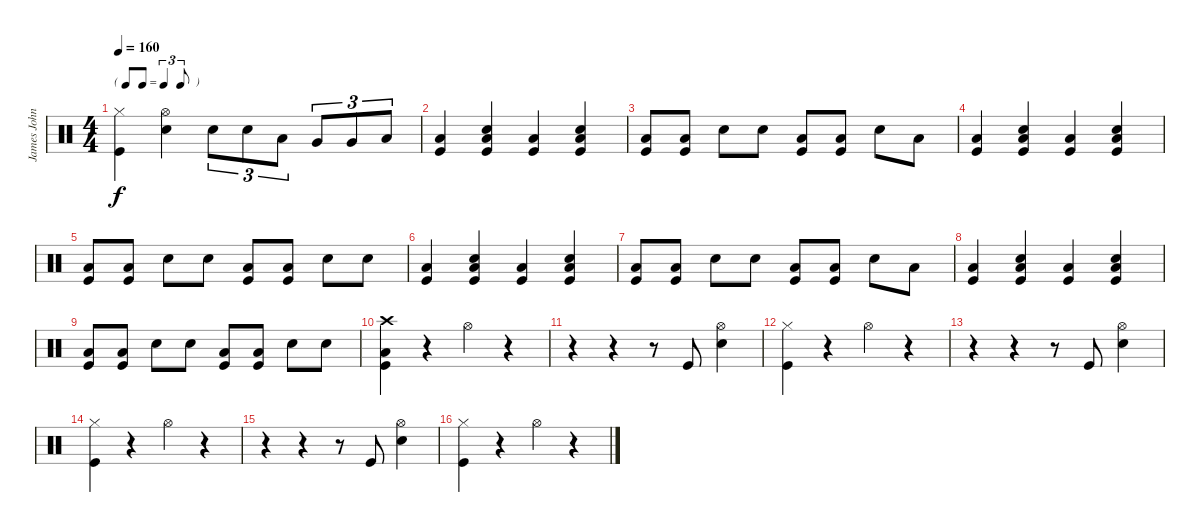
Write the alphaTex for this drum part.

\track ("James Johnston" "James John") {instrument percussion}
\staff {score}
\articulation defaults
\ts (4 4)
\tf triplet8th
\tempo 160
\clef neutral
\ks c
("Hi-Hat (closed)" "Kick (hit)").4{dy f} ("Hi-Hat (open)" "Electric Snare (hit)").4 "Electric Snare (hit)".8{tu (3 2)} "Electric Snare (hit)".8{tu (3 2)} "Low Tom (hit)".8{tu (3 2)} "Very Low Tom (hit)".8{tu (3 2)} "Very Low Tom (hit)".8{tu (3 2)} "Low Floor Tom (hit)".8{tu (3 2)} |
("Low Floor Tom (hit)" "Kick (hit)").4 ("Electric Snare (hit)" "Low Floor Tom (hit)" "Kick (hit)").4 ("Low Floor Tom (hit)" "Kick (hit)").4 ("Electric Snare (hit)" "Low Floor Tom (hit)" "Kick (hit)").4 |
("Low Floor Tom (hit)" "Kick (hit)").8 ("Low Floor Tom (hit)" "Kick (hit)").8 "Electric Snare (hit)".8 "Electric Snare (hit)".8 ("Low Floor Tom (hit)" "Kick (hit)").8 ("Low Floor Tom (hit)" "Kick (hit)").8 "Electric Snare (hit)".8 "Low Floor Tom (hit)".8 |
("Low Floor Tom (hit)" "Kick (hit)").4 ("Electric Snare (hit)" "Low Floor Tom (hit)" "Kick (hit)").4 ("Low Floor Tom (hit)" "Kick (hit)").4 ("Electric Snare (hit)" "Low Floor Tom (hit)" "Kick (hit)").4 |
("Low Floor Tom (hit)" "Kick (hit)").8 ("Low Floor Tom (hit)" "Kick (hit)").8 "Electric Snare (hit)".8 "Electric Snare (hit)".8 ("Low Floor Tom (hit)" "Kick (hit)").8 ("Low Floor Tom (hit)" "Kick (hit)").8 "Electric Snare (hit)".8 "Electric Snare (hit)".8 |
("Low Floor Tom (hit)" "Kick (hit)").4 ("Electric Snare (hit)" "Low Floor Tom (hit)" "Kick (hit)").4 ("Low Floor Tom (hit)" "Kick (hit)").4 ("Electric Snare (hit)" "Low Floor Tom (hit)" "Kick (hit)").4 |
("Low Floor Tom (hit)" "Kick (hit)").8 ("Low Floor Tom (hit)" "Kick (hit)").8 "Electric Snare (hit)".8 "Electric Snare (hit)".8 ("Low Floor Tom (hit)" "Kick (hit)").8 ("Low Floor Tom (hit)" "Kick (hit)").8 "Electric Snare (hit)".8 "Low Floor Tom (hit)".8 |
("Low Floor Tom (hit)" "Kick (hit)").4 ("Electric Snare (hit)" "Low Floor Tom (hit)" "Kick (hit)").4 ("Low Floor Tom (hit)" "Kick (hit)").4 ("Electric Snare (hit)" "Low Floor Tom (hit)" "Kick (hit)").4 |
("Low Floor Tom (hit)" "Kick (hit)").8 ("Low Floor Tom (hit)" "Kick (hit)").8 "Electric Snare (hit)".8 "Electric Snare (hit)".8 ("Low Floor Tom (hit)" "Kick (hit)").8 ("Low Floor Tom (hit)" "Kick (hit)").8 "Electric Snare (hit)".8 "Electric Snare (hit)".8 |
("Crash high (hit)" "Low Floor Tom (hit)" "Kick (hit)").4 r.4 "Hi-Hat (open)".4 r.4 |
r.4 r.4 r.8 "Kick (hit)".8 ("Hi-Hat (open)" "Electric Snare (hit)").4 |
("Hi-Hat (closed)" "Kick (hit)").4 r.4 "Hi-Hat (open)".4 r.4 |
r.4 r.4 r.8 "Kick (hit)".8 ("Hi-Hat (open)" "Electric Snare (hit)").4 |
("Hi-Hat (closed)" "Kick (hit)").4 r.4 "Hi-Hat (open)".4 r.4 |
r.4 r.4 r.8 "Kick (hit)".8 ("Hi-Hat (open)" "Electric Snare (hit)").4 |
("Hi-Hat (closed)" "Kick (hit)").4 r.4 "Hi-Hat (open)".4 r.4
